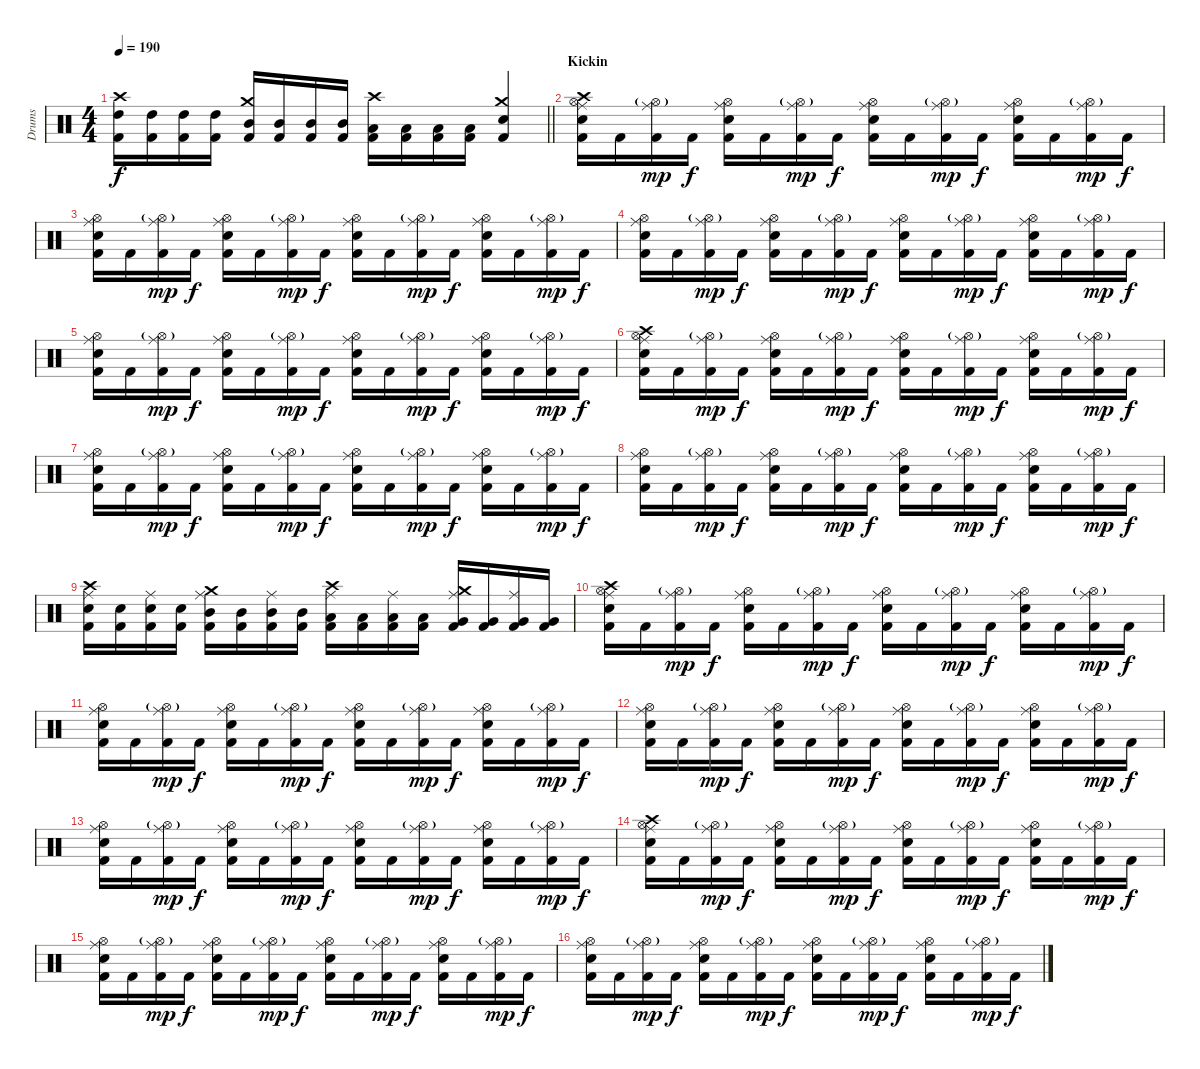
\track ("Drums" "Drums") {instrument percussion}
\staff {score}
\articulation defaults
\ts (4 4)
\tempo 190
\clef neutral
\barLineRight lightlight
\ks c
("Crash high (hit)" "High Tom (hit)" "Kick (hit) 2").16{dy f} ("High Tom (hit)" "Kick (hit) 2").16 ("High Tom (hit)" "Kick (hit) 2").16 ("High Tom (hit)" "Kick (hit) 2").16 ("Crash medium (hit)" "Mid Tom (hit)" "Kick (hit) 2").16 ("Mid Tom (hit)" "Kick (hit) 2").16 ("Mid Tom (hit)" "Kick (hit) 2").16 ("Mid Tom (hit)" "Kick (hit) 2").16 ("Crash high (hit)" "Low Tom (hit)" "Kick (hit) 2").16 ("Low Tom (hit)" "Kick (hit) 2").16 ("Low Tom (hit)" "Kick (hit) 2").16 ("Low Tom (hit)" "Kick (hit) 2").16 ("Crash medium (hit)" "Snare (hit) 2" "Kick (hit) 2").4 |
\section ("" "Kickin")
("Crash high (hit)" "Ride (middle)" "Hi-Hat (open)" "Snare (hit) 2" "Kick (hit) 2").16 "Kick (hit) 2".16 ("Ride (middle)" "Hi-Hat (open)"{g} "Kick (hit) 2").16{dy mp} "Kick (hit) 2".16{dy f} ("Ride (middle)" "Hi-Hat (open)" "Snare (hit) 2" "Kick (hit) 2").16 "Kick (hit) 2".16 ("Ride (middle)" "Hi-Hat (open)"{g} "Kick (hit) 2").16{dy mp} "Kick (hit) 2".16{dy f} ("Ride (middle)" "Hi-Hat (open)" "Snare (hit) 2" "Kick (hit) 2").16 "Kick (hit) 2".16 ("Ride (middle)" "Hi-Hat (open)"{g} "Kick (hit) 2").16{dy mp} "Kick (hit) 2".16{dy f} ("Ride (middle)" "Hi-Hat (open)" "Snare (hit) 2" "Kick (hit) 2").16 "Kick (hit) 2".16 ("Ride (middle)" "Hi-Hat (open)"{g} "Kick (hit) 2").16{dy mp} "Kick (hit) 2".16{dy f} |
("Ride (middle)" "Hi-Hat (open)" "Snare (hit) 2" "Kick (hit) 2").16 "Kick (hit) 2".16 ("Ride (middle)" "Hi-Hat (open)"{g} "Kick (hit) 2").16{dy mp} "Kick (hit) 2".16{dy f} ("Ride (middle)" "Hi-Hat (open)" "Snare (hit) 2" "Kick (hit) 2").16 "Kick (hit) 2".16 ("Ride (middle)" "Hi-Hat (open)"{g} "Kick (hit) 2").16{dy mp} "Kick (hit) 2".16{dy f} ("Ride (middle)" "Hi-Hat (open)" "Snare (hit) 2" "Kick (hit) 2").16 "Kick (hit) 2".16 ("Ride (middle)" "Hi-Hat (open)"{g} "Kick (hit) 2").16{dy mp} "Kick (hit) 2".16{dy f} ("Ride (middle)" "Hi-Hat (open)" "Snare (hit) 2" "Kick (hit) 2").16 "Kick (hit) 2".16 ("Ride (middle)" "Hi-Hat (open)"{g} "Kick (hit) 2").16{dy mp} "Kick (hit) 2".16{dy f} |
("Ride (middle)" "Hi-Hat (open)" "Snare (hit) 2" "Kick (hit) 2").16 "Kick (hit) 2".16 ("Ride (middle)" "Hi-Hat (open)"{g} "Kick (hit) 2").16{dy mp} "Kick (hit) 2".16{dy f} ("Ride (middle)" "Hi-Hat (open)" "Snare (hit) 2" "Kick (hit) 2").16 "Kick (hit) 2".16 ("Ride (middle)" "Hi-Hat (open)"{g} "Kick (hit) 2").16{dy mp} "Kick (hit) 2".16{dy f} ("Ride (middle)" "Hi-Hat (open)" "Snare (hit) 2" "Kick (hit) 2").16 "Kick (hit) 2".16 ("Ride (middle)" "Hi-Hat (open)"{g} "Kick (hit) 2").16{dy mp} "Kick (hit) 2".16{dy f} ("Ride (middle)" "Hi-Hat (open)" "Snare (hit) 2" "Kick (hit) 2").16 "Kick (hit) 2".16 ("Ride (middle)" "Hi-Hat (open)"{g} "Kick (hit) 2").16{dy mp} "Kick (hit) 2".16{dy f} |
("Ride (middle)" "Hi-Hat (open)" "Snare (hit) 2" "Kick (hit) 2").16 "Kick (hit) 2".16 ("Ride (middle)" "Hi-Hat (open)"{g} "Kick (hit) 2").16{dy mp} "Kick (hit) 2".16{dy f} ("Ride (middle)" "Hi-Hat (open)" "Snare (hit) 2" "Kick (hit) 2").16 "Kick (hit) 2".16 ("Ride (middle)" "Hi-Hat (open)"{g} "Kick (hit) 2").16{dy mp} "Kick (hit) 2".16{dy f} ("Ride (middle)" "Hi-Hat (open)" "Snare (hit) 2" "Kick (hit) 2").16 "Kick (hit) 2".16 ("Ride (middle)" "Hi-Hat (open)"{g} "Kick (hit) 2").16{dy mp} "Kick (hit) 2".16{dy f} ("Ride (middle)" "Hi-Hat (open)" "Snare (hit) 2" "Kick (hit) 2").16 "Kick (hit) 2".16 ("Ride (middle)" "Hi-Hat (open)"{g} "Kick (hit) 2").16{dy mp} "Kick (hit) 2".16{dy f} |
("Crash high (hit)" "Ride (middle)" "Hi-Hat (open)" "Snare (hit) 2" "Kick (hit) 2").16 "Kick (hit) 2".16 ("Ride (middle)" "Hi-Hat (open)"{g} "Kick (hit) 2").16{dy mp} "Kick (hit) 2".16{dy f} ("Ride (middle)" "Hi-Hat (open)" "Snare (hit) 2" "Kick (hit) 2").16 "Kick (hit) 2".16 ("Ride (middle)" "Hi-Hat (open)"{g} "Kick (hit) 2").16{dy mp} "Kick (hit) 2".16{dy f} ("Ride (middle)" "Hi-Hat (open)" "Snare (hit) 2" "Kick (hit) 2").16 "Kick (hit) 2".16 ("Ride (middle)" "Hi-Hat (open)"{g} "Kick (hit) 2").16{dy mp} "Kick (hit) 2".16{dy f} ("Ride (middle)" "Hi-Hat (open)" "Snare (hit) 2" "Kick (hit) 2").16 "Kick (hit) 2".16 ("Ride (middle)" "Hi-Hat (open)"{g} "Kick (hit) 2").16{dy mp} "Kick (hit) 2".16{dy f} |
("Ride (middle)" "Hi-Hat (open)" "Snare (hit) 2" "Kick (hit) 2").16 "Kick (hit) 2".16 ("Ride (middle)" "Hi-Hat (open)"{g} "Kick (hit) 2").16{dy mp} "Kick (hit) 2".16{dy f} ("Ride (middle)" "Hi-Hat (open)" "Snare (hit) 2" "Kick (hit) 2").16 "Kick (hit) 2".16 ("Ride (middle)" "Hi-Hat (open)"{g} "Kick (hit) 2").16{dy mp} "Kick (hit) 2".16{dy f} ("Ride (middle)" "Hi-Hat (open)" "Snare (hit) 2" "Kick (hit) 2").16 "Kick (hit) 2".16 ("Ride (middle)" "Hi-Hat (open)"{g} "Kick (hit) 2").16{dy mp} "Kick (hit) 2".16{dy f} ("Ride (middle)" "Hi-Hat (open)" "Snare (hit) 2" "Kick (hit) 2").16 "Kick (hit) 2".16 ("Ride (middle)" "Hi-Hat (open)"{g} "Kick (hit) 2").16{dy mp} "Kick (hit) 2".16{dy f} |
("Ride (middle)" "Hi-Hat (open)" "Snare (hit) 2" "Kick (hit) 2").16 "Kick (hit) 2".16 ("Ride (middle)" "Hi-Hat (open)"{g} "Kick (hit) 2").16{dy mp} "Kick (hit) 2".16{dy f} ("Ride (middle)" "Hi-Hat (open)" "Snare (hit) 2" "Kick (hit) 2").16 "Kick (hit) 2".16 ("Ride (middle)" "Hi-Hat (open)"{g} "Kick (hit) 2").16{dy mp} "Kick (hit) 2".16{dy f} ("Ride (middle)" "Hi-Hat (open)" "Snare (hit) 2" "Kick (hit) 2").16 "Kick (hit) 2".16 ("Ride (middle)" "Hi-Hat (open)"{g} "Kick (hit) 2").16{dy mp} "Kick (hit) 2".16{dy f} ("Ride (middle)" "Hi-Hat (open)" "Snare (hit) 2" "Kick (hit) 2").16 "Kick (hit) 2".16 ("Ride (middle)" "Hi-Hat (open)"{g} "Kick (hit) 2").16{dy mp} "Kick (hit) 2".16{dy f} |
("Crash high (hit)" "Ride (middle)" "Snare (hit) 2" "Kick (hit) 2").16 ("Snare (hit) 2" "Kick (hit) 2").16 ("Ride (middle)" "Snare (hit) 2" "Kick (hit) 2").16 ("Snare (hit) 2" "Kick (hit) 2").16 ("Crash medium (hit)" "Ride (middle)" "Mid Tom (hit)" "Kick (hit) 2").16 ("Mid Tom (hit)" "Kick (hit) 2").16 ("Ride (middle)" "Mid Tom (hit)" "Kick (hit) 2").16 ("Mid Tom (hit)" "Kick (hit) 2").16 ("Crash high (hit)" "Ride (middle)" "Low Tom (hit)" "Kick (hit) 2").16 ("Low Tom (hit)" "Kick (hit) 2").16 ("Ride (middle)" "Low Tom (hit)" "Kick (hit) 2").16 ("Low Tom (hit)" "Kick (hit) 2").16 ("Crash medium (hit)" "Ride (middle)" "Very Low Tom (hit)" "Kick (hit) 2").16 ("Very Low Tom (hit)" "Kick (hit) 2").16 ("Ride (middle)" "Very Low Tom (hit)" "Kick (hit) 2").16 ("Very Low Tom (hit)" "Kick (hit) 2").16 |
("Crash high (hit)" "Ride (middle)" "Hi-Hat (open)" "Snare (hit) 2" "Kick (hit) 2").16 "Kick (hit) 2".16 ("Ride (middle)" "Hi-Hat (open)"{g} "Kick (hit) 2").16{dy mp} "Kick (hit) 2".16{dy f} ("Ride (middle)" "Hi-Hat (open)" "Snare (hit) 2" "Kick (hit) 2").16 "Kick (hit) 2".16 ("Ride (middle)" "Hi-Hat (open)"{g} "Kick (hit) 2").16{dy mp} "Kick (hit) 2".16{dy f} ("Ride (middle)" "Hi-Hat (open)" "Snare (hit) 2" "Kick (hit) 2").16 "Kick (hit) 2".16 ("Ride (middle)" "Hi-Hat (open)"{g} "Kick (hit) 2").16{dy mp} "Kick (hit) 2".16{dy f} ("Ride (middle)" "Hi-Hat (open)" "Snare (hit) 2" "Kick (hit) 2").16 "Kick (hit) 2".16 ("Ride (middle)" "Hi-Hat (open)"{g} "Kick (hit) 2").16{dy mp} "Kick (hit) 2".16{dy f} |
("Ride (middle)" "Hi-Hat (open)" "Snare (hit) 2" "Kick (hit) 2").16 "Kick (hit) 2".16 ("Ride (middle)" "Hi-Hat (open)"{g} "Kick (hit) 2").16{dy mp} "Kick (hit) 2".16{dy f} ("Ride (middle)" "Hi-Hat (open)" "Snare (hit) 2" "Kick (hit) 2").16 "Kick (hit) 2".16 ("Ride (middle)" "Hi-Hat (open)"{g} "Kick (hit) 2").16{dy mp} "Kick (hit) 2".16{dy f} ("Ride (middle)" "Hi-Hat (open)" "Snare (hit) 2" "Kick (hit) 2").16 "Kick (hit) 2".16 ("Ride (middle)" "Hi-Hat (open)"{g} "Kick (hit) 2").16{dy mp} "Kick (hit) 2".16{dy f} ("Ride (middle)" "Hi-Hat (open)" "Snare (hit) 2" "Kick (hit) 2").16 "Kick (hit) 2".16 ("Ride (middle)" "Hi-Hat (open)"{g} "Kick (hit) 2").16{dy mp} "Kick (hit) 2".16{dy f} |
("Ride (middle)" "Hi-Hat (open)" "Snare (hit) 2" "Kick (hit) 2").16 "Kick (hit) 2".16 ("Ride (middle)" "Hi-Hat (open)"{g} "Kick (hit) 2").16{dy mp} "Kick (hit) 2".16{dy f} ("Ride (middle)" "Hi-Hat (open)" "Snare (hit) 2" "Kick (hit) 2").16 "Kick (hit) 2".16 ("Ride (middle)" "Hi-Hat (open)"{g} "Kick (hit) 2").16{dy mp} "Kick (hit) 2".16{dy f} ("Ride (middle)" "Hi-Hat (open)" "Snare (hit) 2" "Kick (hit) 2").16 "Kick (hit) 2".16 ("Ride (middle)" "Hi-Hat (open)"{g} "Kick (hit) 2").16{dy mp} "Kick (hit) 2".16{dy f} ("Ride (middle)" "Hi-Hat (open)" "Snare (hit) 2" "Kick (hit) 2").16 "Kick (hit) 2".16 ("Ride (middle)" "Hi-Hat (open)"{g} "Kick (hit) 2").16{dy mp} "Kick (hit) 2".16{dy f} |
("Ride (middle)" "Hi-Hat (open)" "Snare (hit) 2" "Kick (hit) 2").16 "Kick (hit) 2".16 ("Ride (middle)" "Hi-Hat (open)"{g} "Kick (hit) 2").16{dy mp} "Kick (hit) 2".16{dy f} ("Ride (middle)" "Hi-Hat (open)" "Snare (hit) 2" "Kick (hit) 2").16 "Kick (hit) 2".16 ("Ride (middle)" "Hi-Hat (open)"{g} "Kick (hit) 2").16{dy mp} "Kick (hit) 2".16{dy f} ("Ride (middle)" "Hi-Hat (open)" "Snare (hit) 2" "Kick (hit) 2").16 "Kick (hit) 2".16 ("Ride (middle)" "Hi-Hat (open)"{g} "Kick (hit) 2").16{dy mp} "Kick (hit) 2".16{dy f} ("Ride (middle)" "Hi-Hat (open)" "Snare (hit) 2" "Kick (hit) 2").16 "Kick (hit) 2".16 ("Ride (middle)" "Hi-Hat (open)"{g} "Kick (hit) 2").16{dy mp} "Kick (hit) 2".16{dy f} |
("Crash high (hit)" "Ride (middle)" "Hi-Hat (open)" "Snare (hit) 2" "Kick (hit) 2").16 "Kick (hit) 2".16 ("Ride (middle)" "Hi-Hat (open)"{g} "Kick (hit) 2").16{dy mp} "Kick (hit) 2".16{dy f} ("Ride (middle)" "Hi-Hat (open)" "Snare (hit) 2" "Kick (hit) 2").16 "Kick (hit) 2".16 ("Ride (middle)" "Hi-Hat (open)"{g} "Kick (hit) 2").16{dy mp} "Kick (hit) 2".16{dy f} ("Ride (middle)" "Hi-Hat (open)" "Snare (hit) 2" "Kick (hit) 2").16 "Kick (hit) 2".16 ("Ride (middle)" "Hi-Hat (open)"{g} "Kick (hit) 2").16{dy mp} "Kick (hit) 2".16{dy f} ("Ride (middle)" "Hi-Hat (open)" "Snare (hit) 2" "Kick (hit) 2").16 "Kick (hit) 2".16 ("Ride (middle)" "Hi-Hat (open)"{g} "Kick (hit) 2").16{dy mp} "Kick (hit) 2".16{dy f} |
("Ride (middle)" "Hi-Hat (open)" "Snare (hit) 2" "Kick (hit) 2").16 "Kick (hit) 2".16 ("Ride (middle)" "Hi-Hat (open)"{g} "Kick (hit) 2").16{dy mp} "Kick (hit) 2".16{dy f} ("Ride (middle)" "Hi-Hat (open)" "Snare (hit) 2" "Kick (hit) 2").16 "Kick (hit) 2".16 ("Ride (middle)" "Hi-Hat (open)"{g} "Kick (hit) 2").16{dy mp} "Kick (hit) 2".16{dy f} ("Ride (middle)" "Hi-Hat (open)" "Snare (hit) 2" "Kick (hit) 2").16 "Kick (hit) 2".16 ("Ride (middle)" "Hi-Hat (open)"{g} "Kick (hit) 2").16{dy mp} "Kick (hit) 2".16{dy f} ("Ride (middle)" "Hi-Hat (open)" "Snare (hit) 2" "Kick (hit) 2").16 "Kick (hit) 2".16 ("Ride (middle)" "Hi-Hat (open)"{g} "Kick (hit) 2").16{dy mp} "Kick (hit) 2".16{dy f} |
("Ride (middle)" "Hi-Hat (open)" "Snare (hit) 2" "Kick (hit) 2").16 "Kick (hit) 2".16 ("Ride (middle)" "Hi-Hat (open)"{g} "Kick (hit) 2").16{dy mp} "Kick (hit) 2".16{dy f} ("Ride (middle)" "Hi-Hat (open)" "Snare (hit) 2" "Kick (hit) 2").16 "Kick (hit) 2".16 ("Ride (middle)" "Hi-Hat (open)"{g} "Kick (hit) 2").16{dy mp} "Kick (hit) 2".16{dy f} ("Ride (middle)" "Hi-Hat (open)" "Snare (hit) 2" "Kick (hit) 2").16 "Kick (hit) 2".16 ("Ride (middle)" "Hi-Hat (open)"{g} "Kick (hit) 2").16{dy mp} "Kick (hit) 2".16{dy f} ("Ride (middle)" "Hi-Hat (open)" "Snare (hit) 2" "Kick (hit) 2").16 "Kick (hit) 2".16 ("Ride (middle)" "Hi-Hat (open)"{g} "Kick (hit) 2").16{dy mp} "Kick (hit) 2".16{dy f}
